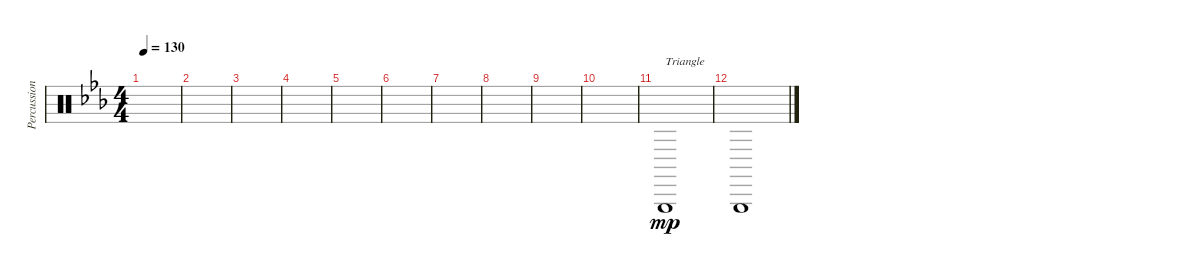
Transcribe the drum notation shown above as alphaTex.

\track ("Percussion" "Percussion") {instrument percussion}
\staff {score}
\articulation defaults
\ts (4 4)
\tempo 130
\clef neutral
\ks cminor
|
|
|
|
|
|
|
|
|
|
"Triangle (hit)".1{txt "Triangle" dy mp} |
"Triangle (hit)".1
